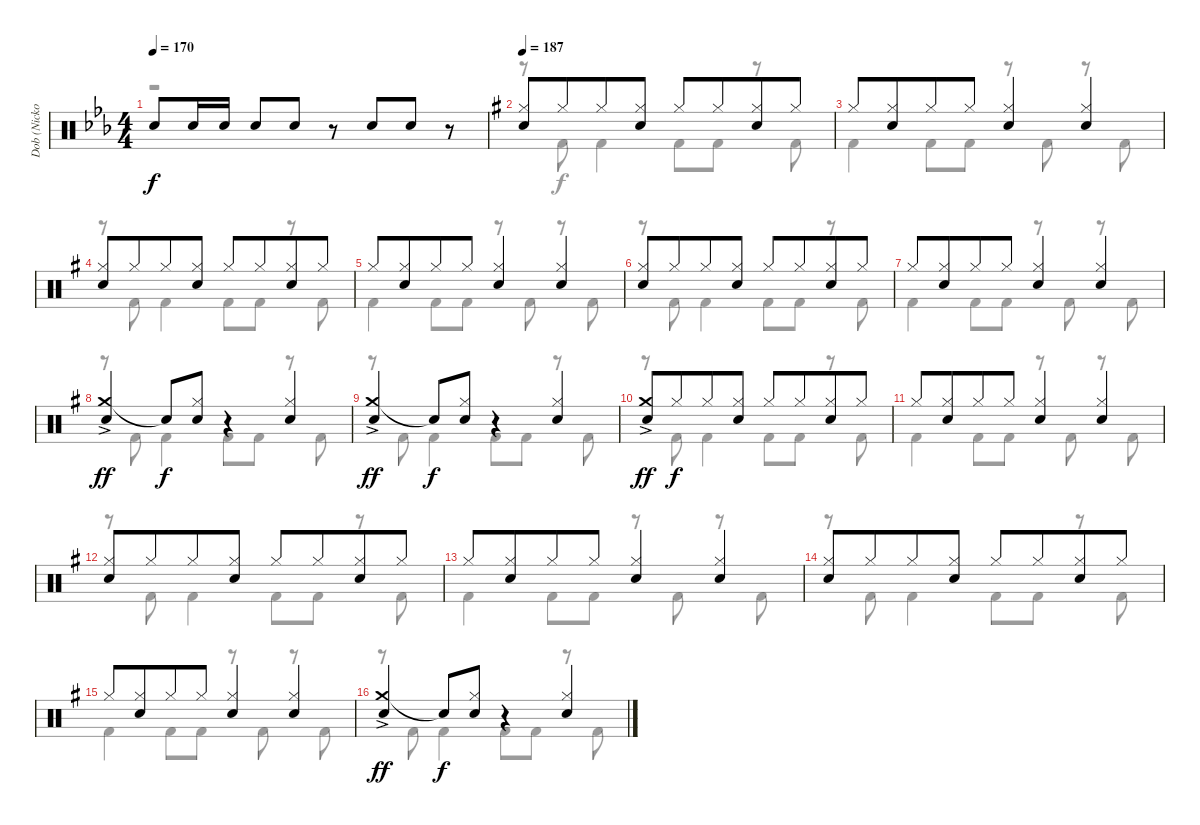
\track ("Dob (Nicko McBrain)" "Dob (Nicko") {instrument percussion}
\staff {score}
\articulation defaults
\voice
\ts (4 4)
\tempo 170
\clef neutral
\ks eb "Electric Snare (hit)".8{dy f} "Electric Snare (hit)".16 "Electric Snare (hit)".16 "Electric Snare (hit)".8 "Electric Snare (hit)".8
r.8 "Electric Snare (hit)".8{beam merge} "Electric Snare (hit)".8 r.8 |
\tempo 187
\ks g
("Hi-Hat (closed)" "Electric Snare (hit)").8 "Hi-Hat (closed)".8{beam merge} "Hi-Hat (closed)".8 ("Hi-Hat (closed)" "Electric Snare (hit)").8 "Hi-Hat (closed)".8 "Hi-Hat (closed)".8{beam merge} ("Hi-Hat (closed)" "Electric Snare (hit)").8 "Hi-Hat (closed)".8 |
"Hi-Hat (closed)".8 ("Hi-Hat (closed)" "Electric Snare (hit)").8{beam merge} "Hi-Hat (closed)".8 "Hi-Hat (closed)".8 ("Hi-Hat (closed)" "Electric Snare (hit)").4 ("Hi-Hat (closed)" "Electric Snare (hit)").4 |
("Hi-Hat (closed)" "Electric Snare (hit)").8 "Hi-Hat (closed)".8{beam merge} "Hi-Hat (closed)".8 ("Hi-Hat (closed)" "Electric Snare (hit)").8 "Hi-Hat (closed)".8 "Hi-Hat (closed)".8{beam merge} ("Hi-Hat (closed)" "Electric Snare (hit)").8 "Hi-Hat (closed)".8 |
"Hi-Hat (closed)".8 ("Hi-Hat (closed)" "Electric Snare (hit)").8{beam merge} "Hi-Hat (closed)".8 "Hi-Hat (closed)".8 ("Hi-Hat (closed)" "Electric Snare (hit)").4 ("Hi-Hat (closed)" "Electric Snare (hit)").4 |
("Hi-Hat (closed)" "Electric Snare (hit)").8 "Hi-Hat (closed)".8{beam merge} "Hi-Hat (closed)".8 ("Hi-Hat (closed)" "Electric Snare (hit)").8 "Hi-Hat (closed)".8 "Hi-Hat (closed)".8{beam merge} ("Hi-Hat (closed)" "Electric Snare (hit)").8 "Hi-Hat (closed)".8 |
"Hi-Hat (closed)".8 ("Hi-Hat (closed)" "Electric Snare (hit)").8{beam merge} "Hi-Hat (closed)".8 "Hi-Hat (closed)".8 ("Hi-Hat (closed)" "Electric Snare (hit)").4 ("Hi-Hat (closed)" "Electric Snare (hit)").4 |
("Crash medium (hit)"{ac} "Electric Snare (hit)").4{dy ff} "Snare (hit)"{t}.8{dy f} ("Hi-Hat (closed)" "Electric Snare (hit)").8 r.4 ("Hi-Hat (closed)" "Electric Snare (hit)").4 |
("Crash medium (hit)"{ac} "Electric Snare (hit)").4{dy ff} "Snare (hit)"{t}.8{dy f} ("Hi-Hat (closed)" "Electric Snare (hit)").8 r.4 ("Hi-Hat (closed)" "Electric Snare (hit)").4 |
("Crash medium (hit)"{ac} "Electric Snare (hit)").8{dy ff} "Hi-Hat (closed)".8{dy f beam merge} "Hi-Hat (closed)".8 ("Hi-Hat (closed)" "Electric Snare (hit)").8 "Hi-Hat (closed)".8 "Hi-Hat (closed)".8{beam merge} ("Hi-Hat (closed)" "Electric Snare (hit)").8 "Hi-Hat (closed)".8 |
"Hi-Hat (closed)".8 ("Hi-Hat (closed)" "Electric Snare (hit)").8{beam merge} "Hi-Hat (closed)".8 "Hi-Hat (closed)".8 ("Hi-Hat (closed)" "Electric Snare (hit)").4 ("Hi-Hat (closed)" "Electric Snare (hit)").4 |
("Hi-Hat (closed)" "Electric Snare (hit)").8 "Hi-Hat (closed)".8{beam merge} "Hi-Hat (closed)".8 ("Hi-Hat (closed)" "Electric Snare (hit)").8 "Hi-Hat (closed)".8 "Hi-Hat (closed)".8{beam merge} ("Hi-Hat (closed)" "Electric Snare (hit)").8 "Hi-Hat (closed)".8 |
"Hi-Hat (closed)".8 ("Hi-Hat (closed)" "Electric Snare (hit)").8{beam merge} "Hi-Hat (closed)".8 "Hi-Hat (closed)".8 ("Hi-Hat (closed)" "Electric Snare (hit)").4 ("Hi-Hat (closed)" "Electric Snare (hit)").4 |
("Hi-Hat (closed)" "Electric Snare (hit)").8 "Hi-Hat (closed)".8{beam merge} "Hi-Hat (closed)".8 ("Hi-Hat (closed)" "Electric Snare (hit)").8 "Hi-Hat (closed)".8 "Hi-Hat (closed)".8{beam merge} ("Hi-Hat (closed)" "Electric Snare (hit)").8 "Hi-Hat (closed)".8 |
"Hi-Hat (closed)".8 ("Hi-Hat (closed)" "Electric Snare (hit)").8{beam merge} "Hi-Hat (closed)".8 "Hi-Hat (closed)".8 ("Hi-Hat (closed)" "Electric Snare (hit)").4 ("Hi-Hat (closed)" "Electric Snare (hit)").4 |
("Crash medium (hit)"{ac} "Electric Snare (hit)").4{dy ff} "Snare (hit)"{t}.8{dy f} ("Hi-Hat (closed)" "Electric Snare (hit)").8 r.4 ("Hi-Hat (closed)" "Electric Snare (hit)").4
\voice
\clef neutral
\ottava regular
\simile none
\ks eb
r.1{dy f} |
\ks g
r.8 "Kick (hit) 2".8 "Kick (hit) 2".4 "Kick (hit) 2".8 "Kick (hit) 2".8 r.8 "Kick (hit) 2".8 |
"Kick (hit) 2".4 "Kick (hit) 2".8 "Kick (hit) 2".8 r.8 "Kick (hit) 2".8 r.8 "Kick (hit) 2".8 |
r.8 "Kick (hit) 2".8 "Kick (hit) 2".4 "Kick (hit) 2".8 "Kick (hit) 2".8 r.8 "Kick (hit) 2".8 |
"Kick (hit) 2".4 "Kick (hit) 2".8 "Kick (hit) 2".8 r.8 "Kick (hit) 2".8 r.8 "Kick (hit) 2".8 |
r.8 "Kick (hit) 2".8 "Kick (hit) 2".4 "Kick (hit) 2".8 "Kick (hit) 2".8 r.8 "Kick (hit) 2".8 |
"Kick (hit) 2".4 "Kick (hit) 2".8 "Kick (hit) 2".8 r.8 "Kick (hit) 2".8 r.8 "Kick (hit) 2".8 |
r.8 "Kick (hit) 2".8 "Kick (hit) 2".4 "Kick (hit) 2".8 "Kick (hit) 2".8 r.8 "Kick (hit) 2".8 |
r.8 "Kick (hit) 2".8 "Kick (hit) 2".4 "Kick (hit) 2".8 "Kick (hit) 2".8 r.8 "Kick (hit) 2".8 |
r.8 "Kick (hit) 2".8 "Kick (hit) 2".4 "Kick (hit) 2".8 "Kick (hit) 2".8 r.8 "Kick (hit) 2".8 |
"Kick (hit) 2".4 "Kick (hit) 2".8 "Kick (hit) 2".8 r.8 "Kick (hit) 2".8 r.8 "Kick (hit) 2".8 |
r.8 "Kick (hit) 2".8 "Kick (hit) 2".4 "Kick (hit) 2".8 "Kick (hit) 2".8 r.8 "Kick (hit) 2".8 |
"Kick (hit) 2".4 "Kick (hit) 2".8 "Kick (hit) 2".8 r.8 "Kick (hit) 2".8 r.8 "Kick (hit) 2".8 |
r.8 "Kick (hit) 2".8 "Kick (hit) 2".4 "Kick (hit) 2".8 "Kick (hit) 2".8 r.8 "Kick (hit) 2".8 |
"Kick (hit) 2".4 "Kick (hit) 2".8 "Kick (hit) 2".8 r.8 "Kick (hit) 2".8 r.8 "Kick (hit) 2".8 |
r.8 "Kick (hit) 2".8 "Kick (hit) 2".4 "Kick (hit) 2".8 "Kick (hit) 2".8 r.8 "Kick (hit) 2".8
